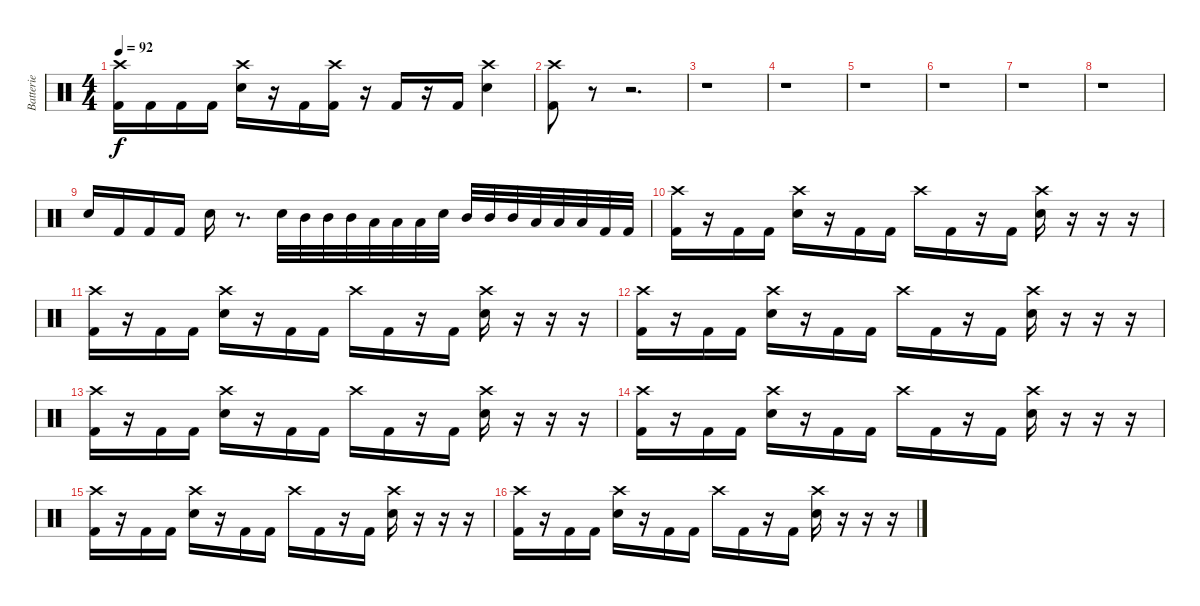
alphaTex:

\track ("Batterie" "Batterie") {instrument percussion}
\staff {score}
\articulation defaults
\ts (4 4)
\tempo 92
\clef neutral
\ks c
("Crash high (hit)" "Kick (hit) 2").16{dy f} "Kick (hit) 2".16 "Kick (hit) 2".16 "Kick (hit) 2".16 ("Crash high (hit)" "Electric Snare (hit)").16 r.16 "Kick (hit) 2".16 ("Crash high (hit)" "Kick (hit) 2").16 r.16 "Kick (hit) 2".16 r.16 "Kick (hit) 2".16 ("Crash high (hit)" "Electric Snare (hit)").4 |
\section ("" "")
("Crash high (hit)" "Kick (hit) 2").8 r.8 r.2{d} |
r.1 |
r.1 |
r.1 |
r.1 |
r.1 |
r.1 |
"Electric Snare (hit)".16 "Kick (hit) 2".16 "Kick (hit) 2".16 "Kick (hit) 2".16 "Electric Snare (hit)".16 r.8{d} "Electric Snare (hit)".32 "Mid Tom (hit)".32 "Mid Tom (hit)".32 "Mid Tom (hit)".32 "Low Tom (hit)".32 "Low Tom (hit)".32 "Low Tom (hit)".32 "Electric Snare (hit)".32 "Mid Tom (hit)".32 "Mid Tom (hit)".32 "Mid Tom (hit)".32 "Low Tom (hit)".32 "Low Tom (hit)".32 "Low Tom (hit)".32 "Kick (hit) 2".32 "Kick (hit) 2".32 |
\section ("" "")
("Crash high (hit)" "Kick (hit) 2").16 r.16 "Kick (hit) 2".16 "Kick (hit) 2".16 ("Crash high (hit)" "Electric Snare (hit)").16 r.16 "Kick (hit) 2".16 "Kick (hit) 2".16 "Crash high (hit)".16 "Kick (hit) 2".16 r.16 "Kick (hit) 2".16 ("Crash high (hit)" "Electric Snare (hit)").16 r.16 r.16 r.16 |
("Crash high (hit)" "Kick (hit) 2").16 r.16 "Kick (hit) 2".16 "Kick (hit) 2".16 ("Crash high (hit)" "Electric Snare (hit)").16 r.16 "Kick (hit) 2".16 "Kick (hit) 2".16 "Crash high (hit)".16 "Kick (hit) 2".16 r.16 "Kick (hit) 2".16 ("Crash high (hit)" "Electric Snare (hit)").16 r.16 r.16 r.16 |
("Crash high (hit)" "Kick (hit) 2").16 r.16 "Kick (hit) 2".16 "Kick (hit) 2".16 ("Crash high (hit)" "Electric Snare (hit)").16 r.16 "Kick (hit) 2".16 "Kick (hit) 2".16 "Crash high (hit)".16 "Kick (hit) 2".16 r.16 "Kick (hit) 2".16 ("Crash high (hit)" "Electric Snare (hit)").16 r.16 r.16 r.16 |
("Crash high (hit)" "Kick (hit) 2").16 r.16 "Kick (hit) 2".16 "Kick (hit) 2".16 ("Crash high (hit)" "Electric Snare (hit)").16 r.16 "Kick (hit) 2".16 "Kick (hit) 2".16 "Crash high (hit)".16 "Kick (hit) 2".16 r.16 "Kick (hit) 2".16 ("Crash high (hit)" "Electric Snare (hit)").16 r.16 r.16 r.16 |
("Crash high (hit)" "Kick (hit) 2").16 r.16 "Kick (hit) 2".16 "Kick (hit) 2".16 ("Crash high (hit)" "Electric Snare (hit)").16 r.16 "Kick (hit) 2".16 "Kick (hit) 2".16 "Crash high (hit)".16 "Kick (hit) 2".16 r.16 "Kick (hit) 2".16 ("Crash high (hit)" "Electric Snare (hit)").16 r.16 r.16 r.16 |
("Crash high (hit)" "Kick (hit) 2").16 r.16 "Kick (hit) 2".16 "Kick (hit) 2".16 ("Crash high (hit)" "Electric Snare (hit)").16 r.16 "Kick (hit) 2".16 "Kick (hit) 2".16 "Crash high (hit)".16 "Kick (hit) 2".16 r.16 "Kick (hit) 2".16 ("Crash high (hit)" "Electric Snare (hit)").16 r.16 r.16 r.16 |
("Crash high (hit)" "Kick (hit) 2").16 r.16 "Kick (hit) 2".16 "Kick (hit) 2".16 ("Crash high (hit)" "Electric Snare (hit)").16 r.16 "Kick (hit) 2".16 "Kick (hit) 2".16 "Crash high (hit)".16 "Kick (hit) 2".16 r.16 "Kick (hit) 2".16 ("Crash high (hit)" "Electric Snare (hit)").16 r.16 r.16 r.16
